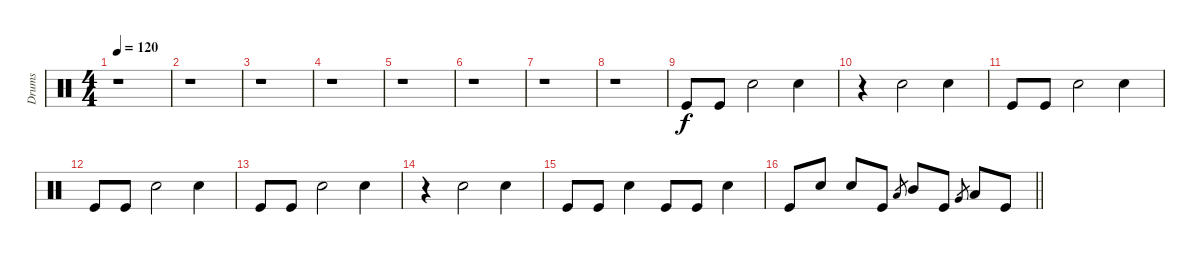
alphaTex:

\track ("Drums" "Drums") {instrument percussion}
\staff {score}
\articulation defaults
\ts (4 4)
\tempo 120
\clef neutral
\ks c
r.1{dy f} |
r.1 |
r.1 |
r.1 |
r.1 |
r.1 |
r.1 |
r.1 |
"Kick (hit)".8 "Kick (hit)".8 "Electric Snare (hit)".2 "Electric Snare (hit)".4 |
r.4 "Electric Snare (hit)".2 "Electric Snare (hit)".4 |
"Kick (hit)".8 "Kick (hit)".8 "Electric Snare (hit)".2 "Electric Snare (hit)".4 |
"Kick (hit)".8 "Kick (hit)".8 "Electric Snare (hit)".2 "Electric Snare (hit)".4 |
"Kick (hit)".8 "Kick (hit)".8 "Electric Snare (hit)".2 "Electric Snare (hit)".4 |
r.4 "Electric Snare (hit)".2 "Electric Snare (hit)".4 |
"Kick (hit)".8 "Kick (hit)".8 "Electric Snare (hit)".4 "Kick (hit)".8 "Kick (hit)".8 "Electric Snare (hit)".4 |
\barLineRight lightlight "Kick (hit)".8 "Electric Snare (hit)".8 "Electric Snare (hit)".8 "Kick (hit)".8 "Low Tom (hit)".8{gr} "Mid Tom (hit)".8 "Kick (hit)".8 "Very Low Tom (hit)".8{gr} "Low Tom (hit)".8 "Kick (hit)".8
